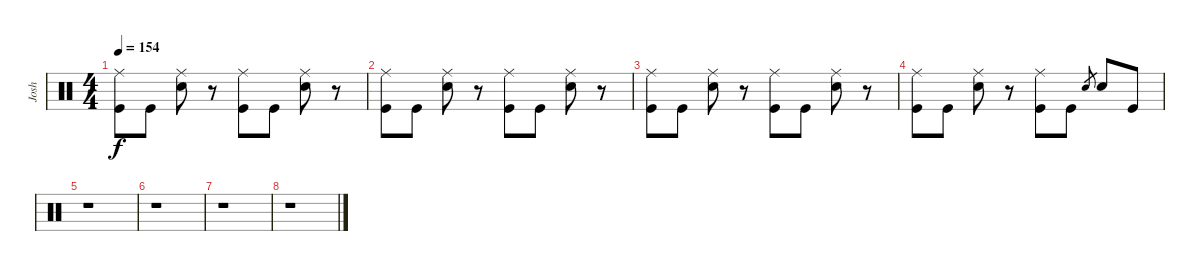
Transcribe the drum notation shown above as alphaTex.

\track ("Josh" "Josh") {instrument percussion}
\staff {score}
\articulation defaults
\ts (4 4)
\tempo 154
\clef neutral
\ks c
("Ride (middle)" "Kick (hit)").8{dy f} "Kick (hit)".8 ("Ride (middle)" "Snare (hit) 2").8 r.8 ("Ride (middle)" "Kick (hit)").8 "Kick (hit)".8 ("Ride (middle)" "Snare (hit) 2").8 r.8 |
("Ride (middle)" "Kick (hit)").8 "Kick (hit)".8 ("Ride (middle)" "Snare (hit) 2").8 r.8 ("Ride (middle)" "Kick (hit)").8 "Kick (hit)".8 ("Ride (middle)" "Snare (hit) 2").8 r.8 |
("Ride (middle)" "Kick (hit)").8 "Kick (hit)".8 ("Ride (middle)" "Snare (hit) 2").8 r.8 ("Ride (middle)" "Kick (hit)").8 "Kick (hit)".8 ("Ride (middle)" "Snare (hit) 2").8 r.8 |
("Ride (middle)" "Kick (hit)").8 "Kick (hit)".8 ("Ride (middle)" "Snare (hit) 2").8 r.8 ("Ride (middle)" "Kick (hit)").8 "Kick (hit)".8 "Snare (hit) 2".8{gr} "Snare (hit) 2".8 "Kick (hit)".8 |
r.1 |
r.1 |
r.1 |
r.1
